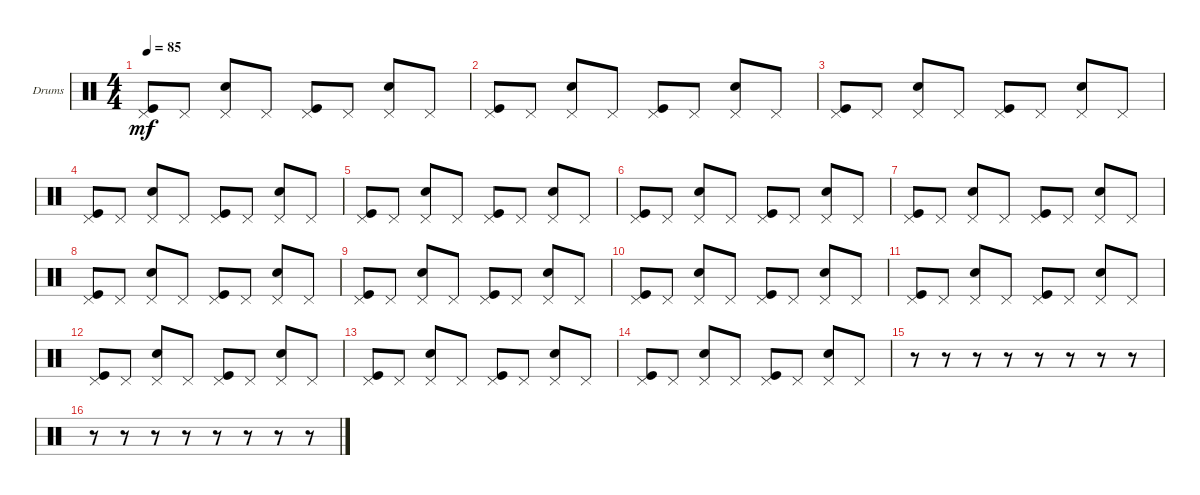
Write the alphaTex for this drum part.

\defaultSystemsLayout 4
\bracketExtendMode groupsimilarinstruments
\firstSystemTrackNameOrientation horizontal
\otherSystemsTrackNameOrientation horizontal
\track ("Drumkit" "Drums") {instrument percussion}
\staff {score}
\articulation defaults
\ts (4 4)
\tempo 85
\clef neutral
\ks c
("Kick (hit)" "Pedal Hi-Hat (hit)").8{dy mf} "Pedal Hi-Hat (hit)".8 ("Snare (hit) 2" "Pedal Hi-Hat (hit)").8 "Pedal Hi-Hat (hit)".8 ("Kick (hit)" "Pedal Hi-Hat (hit)").8 "Pedal Hi-Hat (hit)".8 ("Snare (hit) 2" "Pedal Hi-Hat (hit)").8 "Pedal Hi-Hat (hit)".8 |
("Kick (hit)" "Pedal Hi-Hat (hit)").8 "Pedal Hi-Hat (hit)".8 ("Snare (hit) 2" "Pedal Hi-Hat (hit)").8 "Pedal Hi-Hat (hit)".8 ("Kick (hit)" "Pedal Hi-Hat (hit)").8 "Pedal Hi-Hat (hit)".8 ("Snare (hit) 2" "Pedal Hi-Hat (hit)").8 "Pedal Hi-Hat (hit)".8 |
("Kick (hit)" "Pedal Hi-Hat (hit)").8 "Pedal Hi-Hat (hit)".8 ("Snare (hit) 2" "Pedal Hi-Hat (hit)").8 "Pedal Hi-Hat (hit)".8 ("Kick (hit)" "Pedal Hi-Hat (hit)").8 "Pedal Hi-Hat (hit)".8 ("Snare (hit) 2" "Pedal Hi-Hat (hit)").8 "Pedal Hi-Hat (hit)".8 |
("Kick (hit)" "Pedal Hi-Hat (hit)").8 "Pedal Hi-Hat (hit)".8 ("Snare (hit) 2" "Pedal Hi-Hat (hit)").8 "Pedal Hi-Hat (hit)".8 ("Kick (hit)" "Pedal Hi-Hat (hit)").8 "Pedal Hi-Hat (hit)".8 ("Snare (hit) 2" "Pedal Hi-Hat (hit)").8 "Pedal Hi-Hat (hit)".8 |
("Kick (hit)" "Pedal Hi-Hat (hit)").8 "Pedal Hi-Hat (hit)".8 ("Snare (hit) 2" "Pedal Hi-Hat (hit)").8 "Pedal Hi-Hat (hit)".8 ("Kick (hit)" "Pedal Hi-Hat (hit)").8 "Pedal Hi-Hat (hit)".8 ("Snare (hit) 2" "Pedal Hi-Hat (hit)").8 "Pedal Hi-Hat (hit)".8 |
("Kick (hit)" "Pedal Hi-Hat (hit)").8 "Pedal Hi-Hat (hit)".8 ("Snare (hit) 2" "Pedal Hi-Hat (hit)").8 "Pedal Hi-Hat (hit)".8 ("Kick (hit)" "Pedal Hi-Hat (hit)").8 "Pedal Hi-Hat (hit)".8 ("Snare (hit) 2" "Pedal Hi-Hat (hit)").8 "Pedal Hi-Hat (hit)".8 |
("Kick (hit)" "Pedal Hi-Hat (hit)").8 "Pedal Hi-Hat (hit)".8 ("Snare (hit) 2" "Pedal Hi-Hat (hit)").8 "Pedal Hi-Hat (hit)".8 ("Kick (hit)" "Pedal Hi-Hat (hit)").8 "Pedal Hi-Hat (hit)".8 ("Snare (hit) 2" "Pedal Hi-Hat (hit)").8 "Pedal Hi-Hat (hit)".8 |
("Kick (hit)" "Pedal Hi-Hat (hit)").8 "Pedal Hi-Hat (hit)".8 ("Snare (hit) 2" "Pedal Hi-Hat (hit)").8 "Pedal Hi-Hat (hit)".8 ("Kick (hit)" "Pedal Hi-Hat (hit)").8 "Pedal Hi-Hat (hit)".8 ("Snare (hit) 2" "Pedal Hi-Hat (hit)").8 "Pedal Hi-Hat (hit)".8 |
("Kick (hit)" "Pedal Hi-Hat (hit)").8 "Pedal Hi-Hat (hit)".8 ("Snare (hit) 2" "Pedal Hi-Hat (hit)").8 "Pedal Hi-Hat (hit)".8 ("Kick (hit)" "Pedal Hi-Hat (hit)").8 "Pedal Hi-Hat (hit)".8 ("Snare (hit) 2" "Pedal Hi-Hat (hit)").8 "Pedal Hi-Hat (hit)".8 |
("Kick (hit)" "Pedal Hi-Hat (hit)").8 "Pedal Hi-Hat (hit)".8 ("Snare (hit) 2" "Pedal Hi-Hat (hit)").8 "Pedal Hi-Hat (hit)".8 ("Kick (hit)" "Pedal Hi-Hat (hit)").8 "Pedal Hi-Hat (hit)".8 ("Snare (hit) 2" "Pedal Hi-Hat (hit)").8 "Pedal Hi-Hat (hit)".8 |
("Kick (hit)" "Pedal Hi-Hat (hit)").8 "Pedal Hi-Hat (hit)".8 ("Snare (hit) 2" "Pedal Hi-Hat (hit)").8 "Pedal Hi-Hat (hit)".8 ("Kick (hit)" "Pedal Hi-Hat (hit)").8 "Pedal Hi-Hat (hit)".8 ("Snare (hit) 2" "Pedal Hi-Hat (hit)").8 "Pedal Hi-Hat (hit)".8 |
("Kick (hit)" "Pedal Hi-Hat (hit)").8 "Pedal Hi-Hat (hit)".8 ("Snare (hit) 2" "Pedal Hi-Hat (hit)").8 "Pedal Hi-Hat (hit)".8 ("Kick (hit)" "Pedal Hi-Hat (hit)").8 "Pedal Hi-Hat (hit)".8 ("Snare (hit) 2" "Pedal Hi-Hat (hit)").8 "Pedal Hi-Hat (hit)".8 |
("Kick (hit)" "Pedal Hi-Hat (hit)").8 "Pedal Hi-Hat (hit)".8 ("Snare (hit) 2" "Pedal Hi-Hat (hit)").8 "Pedal Hi-Hat (hit)".8 ("Kick (hit)" "Pedal Hi-Hat (hit)").8 "Pedal Hi-Hat (hit)".8 ("Snare (hit) 2" "Pedal Hi-Hat (hit)").8 "Pedal Hi-Hat (hit)".8 |
("Kick (hit)" "Pedal Hi-Hat (hit)").8 "Pedal Hi-Hat (hit)".8 ("Snare (hit) 2" "Pedal Hi-Hat (hit)").8 "Pedal Hi-Hat (hit)".8 ("Kick (hit)" "Pedal Hi-Hat (hit)").8 "Pedal Hi-Hat (hit)".8 ("Snare (hit) 2" "Pedal Hi-Hat (hit)").8 "Pedal Hi-Hat (hit)".8 |
r.8 r.8 r.8 r.8 r.8 r.8 r.8 r.8 |
r.8 r.8 r.8 r.8 r.8 r.8 r.8 r.8
